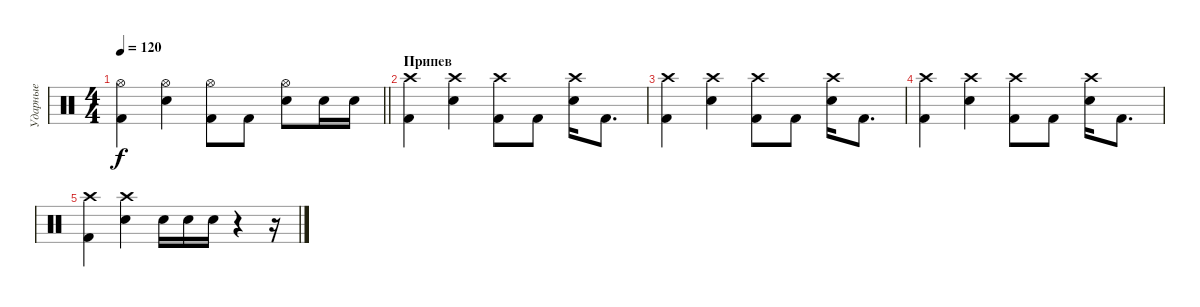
\track ("Ударные" "Ударные") {instrument percussion}
\staff {score}
\articulation defaults
\ts (4 4)
\tempo 120
\clef neutral
\barLineRight lightlight
\ks c
("Hi-Hat (open)" "Kick (hit) 2").4{dy f} ("Hi-Hat (open)" "Electric Snare (hit)").4 ("Hi-Hat (open)" "Kick (hit) 2").8 "Kick (hit) 2".8 ("Hi-Hat (open)" "Electric Snare (hit)").8 "Electric Snare (hit)".16 "Electric Snare (hit)".16 |
\section ("" "Припев")
("Crash high (hit)" "Kick (hit) 2").4 ("Crash high (hit)" "Electric Snare (hit)").4 ("Crash high (hit)" "Kick (hit) 2").8 "Kick (hit) 2".8 ("Crash high (hit)" "Electric Snare (hit)").16 "Kick (hit) 2".8{d} |
("Crash high (hit)" "Kick (hit) 2").4 ("Crash high (hit)" "Electric Snare (hit)").4 ("Crash high (hit)" "Kick (hit) 2").8 "Kick (hit) 2".8 ("Crash high (hit)" "Electric Snare (hit)").16 "Kick (hit) 2".8{d} |
("Crash high (hit)" "Kick (hit) 2").4 ("Crash high (hit)" "Electric Snare (hit)").4 ("Crash high (hit)" "Kick (hit) 2").8 "Kick (hit) 2".8 ("Crash high (hit)" "Electric Snare (hit)").16 "Kick (hit) 2".8{d} |
("Crash high (hit)" "Kick (hit) 2").4 ("Crash high (hit)" "Electric Snare (hit)").4 "Electric Snare (hit)".16 "Electric Snare (hit)".16 "Electric Snare (hit)".16 r.4 r.16
